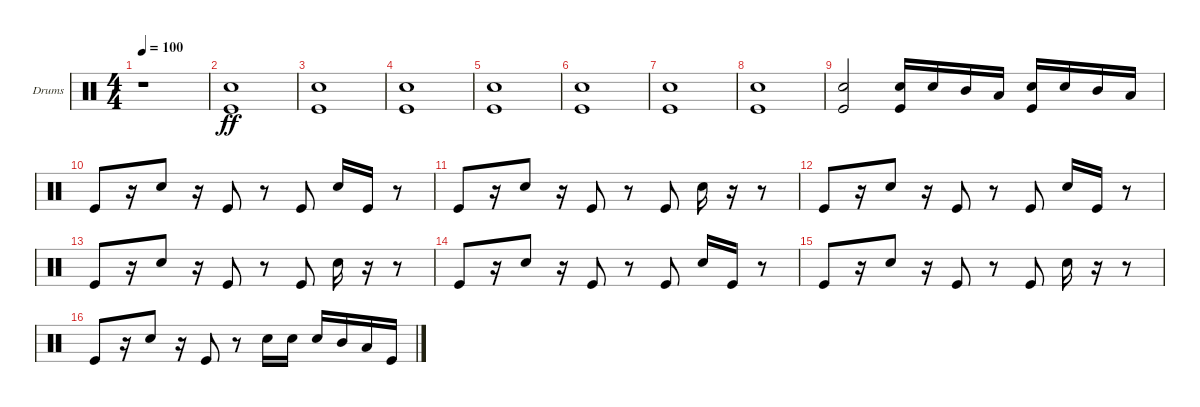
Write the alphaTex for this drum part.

\defaultSystemsLayout 4
\bracketExtendMode groupsimilarinstruments
\firstSystemTrackNameOrientation horizontal
\otherSystemsTrackNameOrientation horizontal
\track ("Drumkit 1" "Drums") {instrument percussion}
\staff {score}
\articulation defaults
\ts (4 4)
\tempo 100
\clef neutral
\ks c
r.1{dy ff} |
("Kick (hit)" "Snare (hit) 2").1 |
("Kick (hit)" "Snare (hit) 2").1 |
("Kick (hit)" "Snare (hit) 2").1 |
("Kick (hit)" "Snare (hit) 2").1 |
("Kick (hit)" "Snare (hit) 2").1 |
("Kick (hit)" "Snare (hit) 2").1 |
("Kick (hit)" "Snare (hit) 2").1 |
("Kick (hit)" "Snare (hit) 2").2 ("Snare (hit) 2" "Kick (hit)").16 "Snare (hit) 2".16 "Mid Tom (hit)".16 "Low Tom (hit)".16 ("Kick (hit)" "Snare (hit) 2").16 "Snare (hit) 2".16 "Mid Tom (hit)".16 "Low Tom (hit)".16 |
"Kick (hit)".8 r.16 "Snare (hit) 2".8 r.16 "Kick (hit)".8 r.8 "Kick (hit)".8 "Snare (hit) 2".16 "Kick (hit)".16 r.8 |
"Kick (hit)".8 r.16 "Snare (hit) 2".8 r.16 "Kick (hit)".8 r.8 "Kick (hit)".8 "Snare (hit) 2".16 r.16 r.8 |
"Kick (hit)".8 r.16 "Snare (hit) 2".8 r.16 "Kick (hit)".8 r.8 "Kick (hit)".8 "Snare (hit) 2".16 "Kick (hit)".16 r.8 |
"Kick (hit)".8 r.16 "Snare (hit) 2".8 r.16 "Kick (hit)".8 r.8 "Kick (hit)".8 "Snare (hit) 2".16 r.16 r.8 |
"Kick (hit)".8 r.16 "Snare (hit) 2".8 r.16 "Kick (hit)".8 r.8 "Kick (hit)".8 "Snare (hit) 2".16 "Kick (hit)".16 r.8 |
"Kick (hit)".8 r.16 "Snare (hit) 2".8 r.16 "Kick (hit)".8 r.8 "Kick (hit)".8 "Snare (hit) 2".16 r.16 r.8 |
"Kick (hit)".8 r.16 "Snare (hit) 2".8 r.16 "Kick (hit)".8 r.8 "Snare (hit) 2".16 "Snare (hit) 2".16 "Snare (hit) 2".16 "Mid Tom (hit)".16 "Low Tom (hit)".16 "Kick (hit)".16
